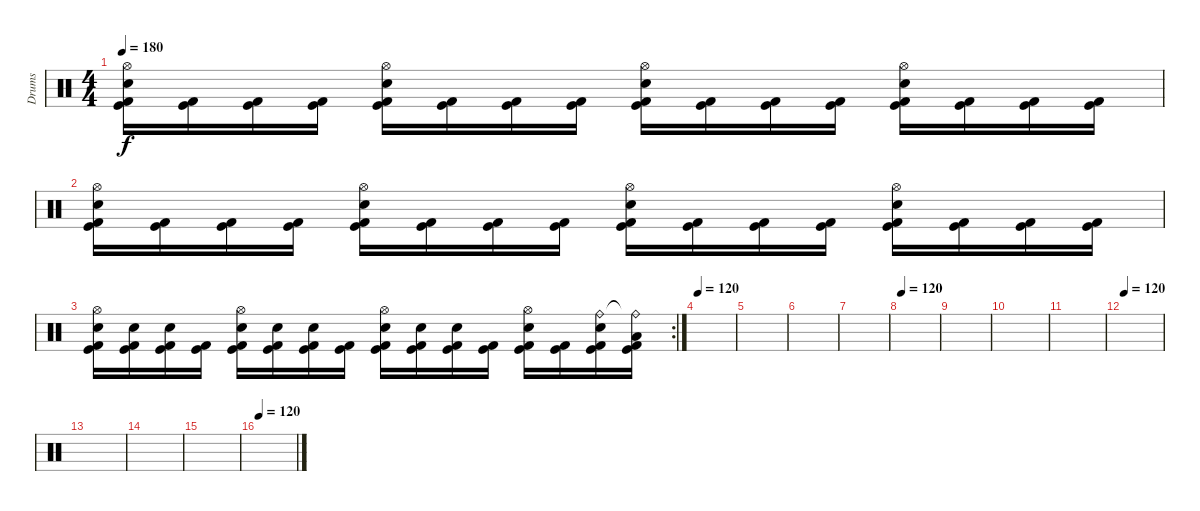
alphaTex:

\track ("Drums" "Drums") {instrument percussion}
\staff {score}
\articulation defaults
\ts (4 4)
\tempo 180
\clef neutral
\ks c
("Hi-Hat (open)" "Electric Snare (hit)" "Kick (hit)" "Kick (hit) 2").16{dy f} ("Kick (hit)" "Kick (hit) 2").16 ("Kick (hit)" "Kick (hit) 2").16 ("Kick (hit)" "Kick (hit) 2").16 ("Hi-Hat (open)" "Electric Snare (hit)" "Kick (hit)" "Kick (hit) 2").16 ("Kick (hit)" "Kick (hit) 2").16 ("Kick (hit)" "Kick (hit) 2").16 ("Kick (hit)" "Kick (hit) 2").16 ("Hi-Hat (open)" "Electric Snare (hit)" "Kick (hit)" "Kick (hit) 2").16 ("Kick (hit)" "Kick (hit) 2").16 ("Kick (hit)" "Kick (hit) 2").16 ("Kick (hit)" "Kick (hit) 2").16 ("Hi-Hat (open)" "Electric Snare (hit)" "Kick (hit)" "Kick (hit) 2").16 ("Kick (hit)" "Kick (hit) 2").16 ("Kick (hit)" "Kick (hit) 2").16 ("Kick (hit)" "Kick (hit) 2").16 |
("Hi-Hat (open)" "Electric Snare (hit)" "Kick (hit)" "Kick (hit) 2").16 ("Kick (hit)" "Kick (hit) 2").16 ("Kick (hit)" "Kick (hit) 2").16 ("Kick (hit)" "Kick (hit) 2").16 ("Hi-Hat (open)" "Electric Snare (hit)" "Kick (hit)" "Kick (hit) 2").16 ("Kick (hit)" "Kick (hit) 2").16 ("Kick (hit)" "Kick (hit) 2").16 ("Kick (hit)" "Kick (hit) 2").16 ("Hi-Hat (open)" "Electric Snare (hit)" "Kick (hit)" "Kick (hit) 2").16 ("Kick (hit)" "Kick (hit) 2").16 ("Kick (hit)" "Kick (hit) 2").16 ("Kick (hit)" "Kick (hit) 2").16 ("Hi-Hat (open)" "Electric Snare (hit)" "Kick (hit)" "Kick (hit) 2").16 ("Kick (hit)" "Kick (hit) 2").16 ("Kick (hit)" "Kick (hit) 2").16 ("Kick (hit)" "Kick (hit) 2").16 |
\rc 2
("Hi-Hat (open)" "Electric Snare (hit)" "Kick (hit)" "Kick (hit) 2").16 ("Electric Snare (hit)" "Kick (hit)" "Kick (hit) 2").16 ("Electric Snare (hit)" "Kick (hit)" "Kick (hit) 2").16 ("Kick (hit)" "Kick (hit) 2").16 ("Hi-Hat (open)" "Electric Snare (hit)" "Kick (hit)" "Kick (hit) 2").16 ("Electric Snare (hit)" "Kick (hit)" "Kick (hit) 2").16 ("Electric Snare (hit)" "Kick (hit)" "Kick (hit) 2").16 ("Kick (hit)" "Kick (hit) 2").16 ("Hi-Hat (open)" "Electric Snare (hit)" "Kick (hit)" "Kick (hit) 2").16 ("Electric Snare (hit)" "Kick (hit)" "Kick (hit) 2").16 ("Electric Snare (hit)" "Kick (hit)" "Kick (hit) 2").16 ("Kick (hit)" "Kick (hit) 2").16 ("Hi-Hat (open)" "Electric Snare (hit)" "Kick (hit)" "Kick (hit) 2").16 ("Kick (hit)" "Kick (hit) 2").16 ("Ride (bell)" "Electric Snare (hit)" "Kick (hit)" "Kick (hit) 2").16 ("Ride (bell)"{t} "Low Tom (hit)" "Kick (hit)" "Kick (hit) 2").16 |
\tempo 120
|
|
|
|
\tempo 120
|
|
|
|
\tempo 120
|
|
|
|
\tempo 120
